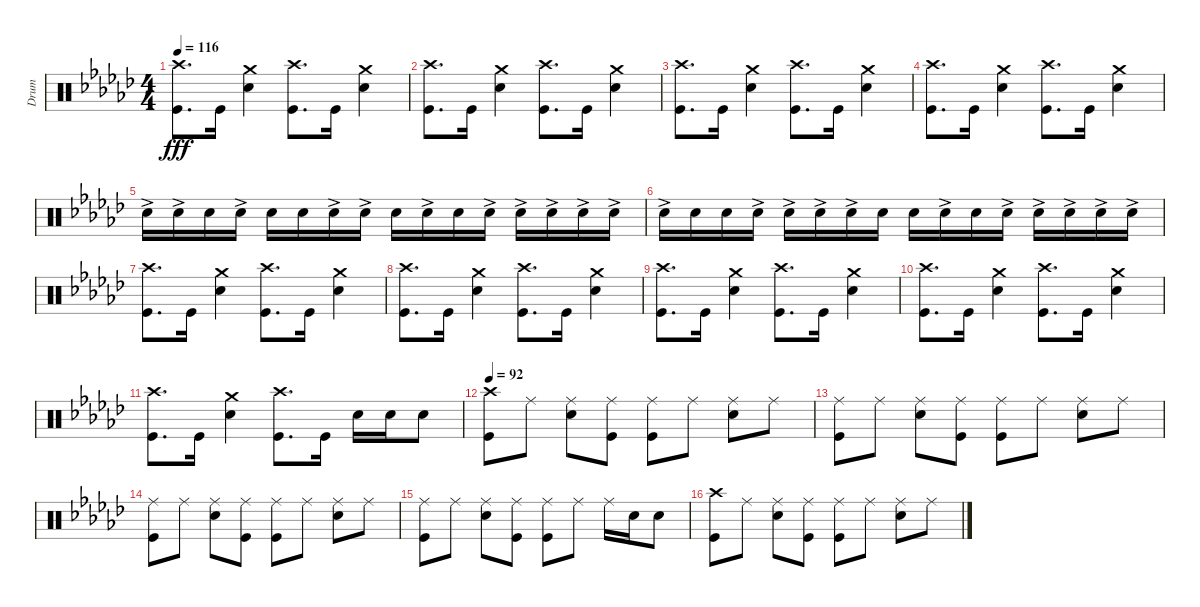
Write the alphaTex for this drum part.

\track ("Drum" "Drum") {instrument percussion}
\staff {score}
\articulation defaults
\ts (4 4)
\tempo 116
\clef neutral
\ks gb
("Crash high (hit)" "Kick (hit)").8{d dy fff} "Kick (hit)".16 ("Crash medium (hit)" "Snare (hit) 2").4 ("Crash high (hit)" "Kick (hit)").8{d} "Kick (hit)".16 ("Crash medium (hit)" "Snare (hit) 2").4 |
("Crash high (hit)" "Kick (hit)").8{d} "Kick (hit)".16 ("Crash medium (hit)" "Snare (hit) 2").4 ("Crash high (hit)" "Kick (hit)").8{d} "Kick (hit)".16 ("Crash medium (hit)" "Snare (hit) 2").4 |
("Crash high (hit)" "Kick (hit)").8{d} "Kick (hit)".16 ("Crash medium (hit)" "Snare (hit) 2").4 ("Crash high (hit)" "Kick (hit)").8{d} "Kick (hit)".16 ("Crash medium (hit)" "Snare (hit) 2").4 |
("Crash high (hit)" "Kick (hit)").8{d} "Kick (hit)".16 ("Crash medium (hit)" "Snare (hit) 2").4 ("Crash high (hit)" "Kick (hit)").8{d} "Kick (hit)".16 ("Crash medium (hit)" "Snare (hit) 2").4 |
"Snare (hit) 2"{ac}.16 "Snare (hit) 2"{ac}.16 "Snare (hit) 2".16 "Snare (hit) 2"{ac}.16 "Snare (hit) 2".16 "Snare (hit) 2".16 "Snare (hit) 2"{ac}.16 "Snare (hit) 2"{ac}.16 "Snare (hit) 2".16 "Snare (hit) 2"{ac}.16 "Snare (hit) 2".16 "Snare (hit) 2"{ac}.16 "Snare (hit) 2"{ac}.16 "Snare (hit) 2"{ac}.16 "Snare (hit) 2"{ac}.16 "Snare (hit) 2"{ac}.16 |
"Snare (hit) 2"{ac}.16 "Snare (hit) 2".16 "Snare (hit) 2".16 "Snare (hit) 2"{ac}.16 "Snare (hit) 2"{ac}.16 "Snare (hit) 2"{ac}.16 "Snare (hit) 2"{ac}.16 "Snare (hit) 2".16 "Snare (hit) 2".16 "Snare (hit) 2"{ac}.16 "Snare (hit) 2".16 "Snare (hit) 2"{ac}.16 "Snare (hit) 2"{ac}.16 "Snare (hit) 2"{ac}.16 "Snare (hit) 2"{ac}.16 "Snare (hit) 2"{ac}.16 |
("Crash high (hit)" "Kick (hit)").8{d} "Kick (hit)".16 ("Crash medium (hit)" "Snare (hit) 2").4 ("Crash high (hit)" "Kick (hit)").8{d} "Kick (hit)".16 ("Crash medium (hit)" "Snare (hit) 2").4 |
("Crash high (hit)" "Kick (hit)").8{d} "Kick (hit)".16 ("Crash medium (hit)" "Snare (hit) 2").4 ("Crash high (hit)" "Kick (hit)").8{d} "Kick (hit)".16 ("Crash medium (hit)" "Snare (hit) 2").4 |
("Crash high (hit)" "Kick (hit)").8{d} "Kick (hit)".16 ("Crash medium (hit)" "Snare (hit) 2").4 ("Crash high (hit)" "Kick (hit)").8{d} "Kick (hit)".16 ("Crash medium (hit)" "Snare (hit) 2").4 |
("Crash high (hit)" "Kick (hit)").8{d} "Kick (hit)".16 ("Crash medium (hit)" "Snare (hit) 2").4 ("Crash high (hit)" "Kick (hit)").8{d} "Kick (hit)".16 ("Crash medium (hit)" "Snare (hit) 2").4 |
("Crash high (hit)" "Kick (hit)").8{d} "Kick (hit)".16 ("Crash medium (hit)" "Snare (hit) 2").4 ("Crash high (hit)" "Kick (hit)").8{d} "Kick (hit)".16 "Snare (hit) 2".16 "Snare (hit) 2".16 "Snare (hit) 2".8 |
\tempo 92
("Crash high (hit)" "Kick (hit)").8 "Ride (middle)".8 ("Ride (middle)" "Snare (hit) 2").8 ("Ride (middle)" "Kick (hit)").8 ("Ride (middle)" "Kick (hit)").8 "Ride (middle)".8 ("Ride (middle)" "Snare (hit) 2").8 "Ride (middle)".8 |
("Ride (middle)" "Kick (hit)").8 "Ride (middle)".8 ("Ride (middle)" "Snare (hit) 2").8 ("Ride (middle)" "Kick (hit)").8 ("Ride (middle)" "Kick (hit)").8 "Ride (middle)".8 ("Ride (middle)" "Snare (hit) 2").8 "Ride (middle)".8 |
("Ride (middle)" "Kick (hit)").8 "Ride (middle)".8 ("Ride (middle)" "Snare (hit) 2").8 ("Ride (middle)" "Kick (hit)").8 ("Ride (middle)" "Kick (hit)").8 "Ride (middle)".8 ("Ride (middle)" "Snare (hit) 2").8 "Ride (middle)".8 |
("Ride (middle)" "Kick (hit)").8 "Ride (middle)".8 ("Ride (middle)" "Snare (hit) 2").8 ("Ride (middle)" "Kick (hit)").8 ("Ride (middle)" "Kick (hit)").8 "Ride (middle)".8 "Ride (middle)".16 "Snare (hit) 2".16 "Snare (hit) 2".8 |
("Crash high (hit)" "Kick (hit)").8 "Ride (middle)".8 ("Ride (middle)" "Snare (hit) 2").8 ("Ride (middle)" "Kick (hit)").8 ("Ride (middle)" "Kick (hit)").8 "Ride (middle)".8 ("Ride (middle)" "Snare (hit) 2").8 "Ride (middle)".8
